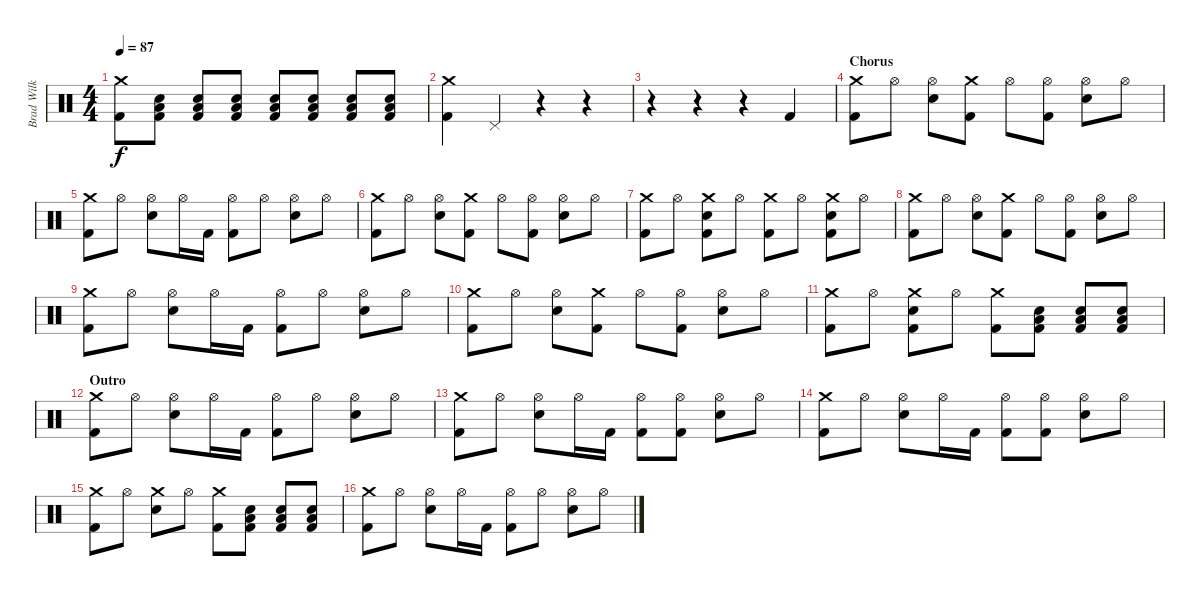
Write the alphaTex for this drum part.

\track ("Brad Wilk" "Brad Wilk") {instrument percussion}
\staff {score}
\articulation defaults
\ts (4 4)
\tempo 87
\clef neutral
\ks c
("Crash medium (hit)" "Kick (hit) 2").8{dy f} ("Electric Snare (hit)" "Low Tom (hit)" "Kick (hit) 2").8 ("Electric Snare (hit)" "Low Tom (hit)" "Kick (hit) 2").8 ("Electric Snare (hit)" "Low Tom (hit)" "Kick (hit) 2").8 ("Electric Snare (hit)" "Low Tom (hit)" "Kick (hit) 2").8 ("Electric Snare (hit)" "Low Tom (hit)" "Kick (hit) 2").8 ("Electric Snare (hit)" "Low Tom (hit)" "Kick (hit) 2").8 ("Electric Snare (hit)" "Low Tom (hit)" "Kick (hit) 2").8 |
("Crash medium (hit)" "Kick (hit) 2").4 "Pedal Hi-Hat (hit)".4 r.4 r.4 |
r.4 r.4 r.4 "Kick (hit) 2".4 |
\section ("" "Chorus")
("Crash medium (hit)" "Kick (hit) 2").8 "Hi-Hat (open)".8 ("Hi-Hat (open)" "Electric Snare (hit)").8 ("Crash medium (hit)" "Kick (hit) 2").8 "Hi-Hat (open)".8 ("Hi-Hat (open)" "Kick (hit) 2").8 ("Hi-Hat (open)" "Electric Snare (hit)").8 "Hi-Hat (open)".8 |
("Crash medium (hit)" "Kick (hit) 2").8 "Hi-Hat (open)".8 ("Hi-Hat (open)" "Electric Snare (hit)").8 "Hi-Hat (open)".16 "Kick (hit) 2".16 ("Hi-Hat (open)" "Kick (hit) 2").8 "Hi-Hat (open)".8 ("Hi-Hat (open)" "Electric Snare (hit)").8 "Hi-Hat (open)".8 |
("Crash medium (hit)" "Kick (hit) 2").8 "Hi-Hat (open)".8 ("Hi-Hat (open)" "Electric Snare (hit)").8 ("Crash medium (hit)" "Kick (hit) 2").8 "Hi-Hat (open)".8 ("Hi-Hat (open)" "Kick (hit) 2").8 ("Hi-Hat (open)" "Electric Snare (hit)").8 "Hi-Hat (open)".8 |
("Crash medium (hit)" "Kick (hit) 2").8 "Hi-Hat (open)".8 ("Crash medium (hit)" "Electric Snare (hit)" "Kick (hit) 2").8 "Hi-Hat (open)".8 ("Crash medium (hit)" "Kick (hit) 2").8 "Hi-Hat (open)".8 ("Crash medium (hit)" "Electric Snare (hit)" "Kick (hit) 2").8 "Hi-Hat (open)".8 |
("Crash medium (hit)" "Kick (hit) 2").8 "Hi-Hat (open)".8 ("Hi-Hat (open)" "Electric Snare (hit)").8 ("Crash medium (hit)" "Kick (hit) 2").8 "Hi-Hat (open)".8 ("Hi-Hat (open)" "Kick (hit) 2").8 ("Hi-Hat (open)" "Electric Snare (hit)").8 "Hi-Hat (open)".8 |
("Crash medium (hit)" "Kick (hit) 2").8 "Hi-Hat (open)".8 ("Hi-Hat (open)" "Electric Snare (hit)").8 "Hi-Hat (open)".16 "Kick (hit) 2".16 ("Hi-Hat (open)" "Kick (hit) 2").8 "Hi-Hat (open)".8 ("Hi-Hat (open)" "Electric Snare (hit)").8 "Hi-Hat (open)".8 |
("Crash medium (hit)" "Kick (hit) 2").8 "Hi-Hat (open)".8 ("Hi-Hat (open)" "Electric Snare (hit)").8 ("Crash medium (hit)" "Kick (hit) 2").8 "Hi-Hat (open)".8 ("Hi-Hat (open)" "Kick (hit) 2").8 ("Hi-Hat (open)" "Electric Snare (hit)").8 "Hi-Hat (open)".8 |
("Crash medium (hit)" "Kick (hit) 2").8 "Hi-Hat (open)".8 ("Crash medium (hit)" "Electric Snare (hit)" "Kick (hit) 2").8 "Hi-Hat (open)".8 ("Crash medium (hit)" "Kick (hit) 2").8 ("Electric Snare (hit)" "Low Tom (hit)" "Kick (hit) 2").8 ("Electric Snare (hit)" "Low Tom (hit)" "Kick (hit) 2").8 ("Electric Snare (hit)" "Low Tom (hit)" "Kick (hit) 2").8 |
\section ("" "Outro")
("Crash medium (hit)" "Kick (hit) 2").8 "Hi-Hat (open)".8 ("Hi-Hat (open)" "Electric Snare (hit)").8 "Hi-Hat (open)".16 "Kick (hit) 2".16 ("Hi-Hat (open)" "Kick (hit) 2").8 "Hi-Hat (open)".8 ("Hi-Hat (open)" "Electric Snare (hit)").8 "Hi-Hat (open)".8 |
("Crash medium (hit)" "Kick (hit) 2").8 "Hi-Hat (open)".8 ("Hi-Hat (open)" "Electric Snare (hit)").8 "Hi-Hat (open)".16 "Kick (hit) 2".16 ("Hi-Hat (open)" "Kick (hit) 2").8 ("Hi-Hat (open)" "Kick (hit) 2").8 ("Hi-Hat (open)" "Electric Snare (hit)").8 "Hi-Hat (open)".8 |
("Crash medium (hit)" "Kick (hit) 2").8 "Hi-Hat (open)".8 ("Hi-Hat (open)" "Electric Snare (hit)").8 "Hi-Hat (open)".16 "Kick (hit) 2".16 ("Hi-Hat (open)" "Kick (hit) 2").8 ("Hi-Hat (open)" "Kick (hit) 2").8 ("Hi-Hat (open)" "Electric Snare (hit)").8 "Hi-Hat (open)".8 |
("Crash medium (hit)" "Kick (hit) 2").8 "Hi-Hat (open)".8 ("Crash medium (hit)" "Electric Snare (hit)").8 "Hi-Hat (open)".8 ("Crash medium (hit)" "Kick (hit) 2").8 ("Electric Snare (hit)" "Low Tom (hit)" "Kick (hit) 2").8 ("Electric Snare (hit)" "Low Tom (hit)" "Kick (hit) 2").8 ("Electric Snare (hit)" "Low Tom (hit)" "Kick (hit) 2").8 |
("Crash medium (hit)" "Kick (hit) 2").8 "Hi-Hat (open)".8 ("Hi-Hat (open)" "Electric Snare (hit)").8 "Hi-Hat (open)".16 "Kick (hit) 2".16 ("Hi-Hat (open)" "Kick (hit) 2").8 "Hi-Hat (open)".8 ("Hi-Hat (open)" "Electric Snare (hit)").8 "Hi-Hat (open)".8
